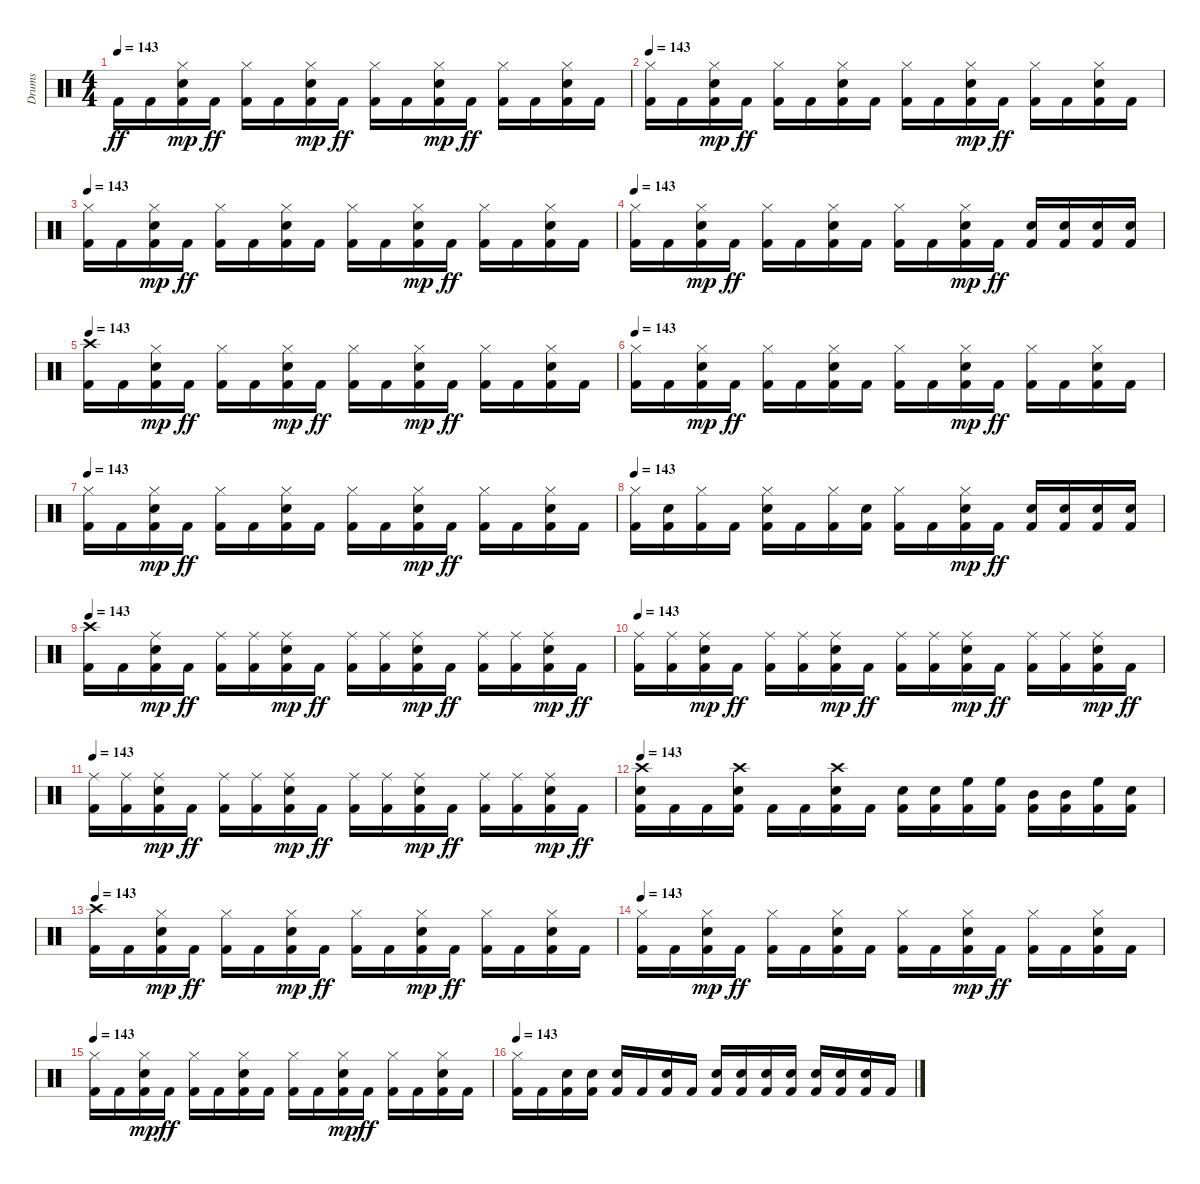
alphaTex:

\track ("Drums" "Drums") {instrument percussion}
\staff {score}
\articulation defaults
\ts (4 4)
\tempo 143
\clef neutral
\ks c "Kick (hit) 2".16{dy ff} "Kick (hit) 2".16
("Kick (hit) 2" "Snare (hit) 2" "Hi-Hat (closed)").16{dy mp} "Kick (hit) 2".16{dy ff} ("Kick (hit) 2" "Hi-Hat (closed)").16 "Kick (hit) 2".16 ("Kick (hit) 2" "Snare (hit) 2" "Hi-Hat (closed)").16{dy mp} "Kick (hit) 2".16{dy ff} ("Hi-Hat (closed)" "Kick (hit) 2").16 "Kick (hit) 2".16 ("Kick (hit) 2" "Snare (hit) 2" "Hi-Hat (closed)").16{dy mp} "Kick (hit) 2".16{dy ff} ("Kick (hit) 2" "Hi-Hat (closed)").16 "Kick (hit) 2".16 ("Hi-Hat (closed)" "Snare (hit) 2" "Kick (hit) 2").16 "Kick (hit) 2".16 |
\tempo 143
("Hi-Hat (closed)" "Kick (hit) 2").16 "Kick (hit) 2".16 ("Kick (hit) 2" "Snare (hit) 2" "Hi-Hat (closed)").16{dy mp} "Kick (hit) 2".16{dy ff} ("Kick (hit) 2" "Hi-Hat (closed)").16 "Kick (hit) 2".16 ("Hi-Hat (closed)" "Snare (hit) 2" "Kick (hit) 2").16 "Kick (hit) 2".16 ("Hi-Hat (closed)" "Kick (hit) 2").16 "Kick (hit) 2".16 ("Kick (hit) 2" "Snare (hit) 2" "Hi-Hat (closed)").16{dy mp} "Kick (hit) 2".16{dy ff} ("Kick (hit) 2" "Hi-Hat (closed)").16 "Kick (hit) 2".16 ("Hi-Hat (closed)" "Snare (hit) 2" "Kick (hit) 2").16 "Kick (hit) 2".16 |
\tempo 143
("Hi-Hat (closed)" "Kick (hit) 2").16 "Kick (hit) 2".16 ("Kick (hit) 2" "Snare (hit) 2" "Hi-Hat (closed)").16{dy mp} "Kick (hit) 2".16{dy ff} ("Kick (hit) 2" "Hi-Hat (closed)").16 "Kick (hit) 2".16 ("Hi-Hat (closed)" "Snare (hit) 2" "Kick (hit) 2").16 "Kick (hit) 2".16 ("Hi-Hat (closed)" "Kick (hit) 2").16 "Kick (hit) 2".16 ("Kick (hit) 2" "Snare (hit) 2" "Hi-Hat (closed)").16{dy mp} "Kick (hit) 2".16{dy ff} ("Kick (hit) 2" "Hi-Hat (closed)").16 "Kick (hit) 2".16 ("Hi-Hat (closed)" "Snare (hit) 2" "Kick (hit) 2").16 "Kick (hit) 2".16 |
\tempo 143
("Hi-Hat (closed)" "Kick (hit) 2").16 "Kick (hit) 2".16 ("Kick (hit) 2" "Snare (hit) 2" "Hi-Hat (closed)").16{dy mp} "Kick (hit) 2".16{dy ff} ("Kick (hit) 2" "Hi-Hat (closed)").16 "Kick (hit) 2".16 ("Hi-Hat (closed)" "Snare (hit) 2" "Kick (hit) 2").16 "Kick (hit) 2".16 ("Hi-Hat (closed)" "Kick (hit) 2").16 "Kick (hit) 2".16 ("Kick (hit) 2" "Snare (hit) 2" "Hi-Hat (closed)").16{dy mp} "Kick (hit) 2".16{dy ff} ("Snare (hit) 2" "Kick (hit) 2").16 ("Snare (hit) 2" "Kick (hit) 2").16 ("Snare (hit) 2" "Kick (hit) 2").16 ("Snare (hit) 2" "Kick (hit) 2").16 |
\tempo 143
("Crash high (hit)" "Kick (hit) 2").16 "Kick (hit) 2".16 ("Kick (hit) 2" "Snare (hit) 2" "Hi-Hat (closed)").16{dy mp} "Kick (hit) 2".16{dy ff} ("Kick (hit) 2" "Hi-Hat (closed)").16 "Kick (hit) 2".16 ("Kick (hit) 2" "Snare (hit) 2" "Hi-Hat (closed)").16{dy mp} "Kick (hit) 2".16{dy ff} ("Hi-Hat (closed)" "Kick (hit) 2").16 "Kick (hit) 2".16 ("Kick (hit) 2" "Snare (hit) 2" "Hi-Hat (closed)").16{dy mp} "Kick (hit) 2".16{dy ff} ("Kick (hit) 2" "Hi-Hat (closed)").16 "Kick (hit) 2".16 ("Hi-Hat (closed)" "Snare (hit) 2" "Kick (hit) 2").16 "Kick (hit) 2".16 |
\tempo 143
("Hi-Hat (closed)" "Kick (hit) 2").16 "Kick (hit) 2".16 ("Kick (hit) 2" "Snare (hit) 2" "Hi-Hat (closed)").16{dy mp} "Kick (hit) 2".16{dy ff} ("Kick (hit) 2" "Hi-Hat (closed)").16 "Kick (hit) 2".16 ("Hi-Hat (closed)" "Snare (hit) 2" "Kick (hit) 2").16 "Kick (hit) 2".16 ("Hi-Hat (closed)" "Kick (hit) 2").16 "Kick (hit) 2".16 ("Kick (hit) 2" "Snare (hit) 2" "Hi-Hat (closed)").16{dy mp} "Kick (hit) 2".16{dy ff} ("Kick (hit) 2" "Hi-Hat (closed)").16 "Kick (hit) 2".16 ("Hi-Hat (closed)" "Snare (hit) 2" "Kick (hit) 2").16 "Kick (hit) 2".16 |
\tempo 143
("Hi-Hat (closed)" "Kick (hit) 2").16 "Kick (hit) 2".16 ("Kick (hit) 2" "Snare (hit) 2" "Hi-Hat (closed)").16{dy mp} "Kick (hit) 2".16{dy ff} ("Kick (hit) 2" "Hi-Hat (closed)").16 "Kick (hit) 2".16 ("Hi-Hat (closed)" "Snare (hit) 2" "Kick (hit) 2").16 "Kick (hit) 2".16 ("Hi-Hat (closed)" "Kick (hit) 2").16 "Kick (hit) 2".16 ("Kick (hit) 2" "Snare (hit) 2" "Hi-Hat (closed)").16{dy mp} "Kick (hit) 2".16{dy ff} ("Kick (hit) 2" "Hi-Hat (closed)").16 "Kick (hit) 2".16 ("Hi-Hat (closed)" "Snare (hit) 2" "Kick (hit) 2").16 "Kick (hit) 2".16 |
\tempo 143
("Hi-Hat (closed)" "Kick (hit) 2").16 ("Snare (hit) 2" "Kick (hit) 2").16 ("Hi-Hat (closed)" "Kick (hit) 2").16 "Kick (hit) 2".16 ("Kick (hit) 2" "Hi-Hat (closed)" "Snare (hit) 2").16 "Kick (hit) 2".16 ("Hi-Hat (closed)" "Kick (hit) 2").16 ("Snare (hit) 2" "Kick (hit) 2").16 ("Hi-Hat (closed)" "Kick (hit) 2").16 "Kick (hit) 2".16 ("Kick (hit) 2" "Snare (hit) 2" "Hi-Hat (closed)").16{dy mp} "Kick (hit) 2".16{dy ff} ("Snare (hit) 2" "Kick (hit) 2").16 ("Snare (hit) 2" "Kick (hit) 2").16 ("Snare (hit) 2" "Kick (hit) 2").16 ("Snare (hit) 2" "Kick (hit) 2").16 |
\tempo 143
("Crash high (hit)" "Kick (hit) 2").16 "Kick (hit) 2".16 ("Kick (hit) 2" "Snare (hit) 2" "Ride (middle)").16{dy mp} "Kick (hit) 2".16{dy ff} ("Ride (middle)" "Kick (hit) 2").16 ("Ride (middle)" "Kick (hit) 2").16 ("Kick (hit) 2" "Snare (hit) 2" "Ride (middle)").16{dy mp} "Kick (hit) 2".16{dy ff} ("Ride (middle)" "Kick (hit) 2").16 ("Ride (middle)" "Kick (hit) 2").16 ("Kick (hit) 2" "Snare (hit) 2" "Ride (middle)").16{dy mp} "Kick (hit) 2".16{dy ff} ("Ride (middle)" "Kick (hit) 2").16 ("Ride (middle)" "Kick (hit) 2").16 ("Kick (hit) 2" "Snare (hit) 2" "Ride (middle)").16{dy mp} "Kick (hit) 2".16{dy ff} |
\tempo 143
("Ride (middle)" "Kick (hit) 2").16 ("Ride (middle)" "Kick (hit) 2").16 ("Kick (hit) 2" "Snare (hit) 2" "Ride (middle)").16{dy mp} "Kick (hit) 2".16{dy ff} ("Ride (middle)" "Kick (hit) 2").16 ("Ride (middle)" "Kick (hit) 2").16 ("Kick (hit) 2" "Snare (hit) 2" "Ride (middle)").16{dy mp} "Kick (hit) 2".16{dy ff} ("Ride (middle)" "Kick (hit) 2").16 ("Ride (middle)" "Kick (hit) 2").16 ("Kick (hit) 2" "Snare (hit) 2" "Ride (middle)").16{dy mp} "Kick (hit) 2".16{dy ff} ("Ride (middle)" "Kick (hit) 2").16 ("Ride (middle)" "Kick (hit) 2").16 ("Kick (hit) 2" "Snare (hit) 2" "Ride (middle)").16{dy mp} "Kick (hit) 2".16{dy ff} |
\tempo 143
("Ride (middle)" "Kick (hit) 2").16 ("Ride (middle)" "Kick (hit) 2").16 ("Kick (hit) 2" "Snare (hit) 2" "Ride (middle)").16{dy mp} "Kick (hit) 2".16{dy ff} ("Ride (middle)" "Kick (hit) 2").16 ("Ride (middle)" "Kick (hit) 2").16 ("Kick (hit) 2" "Snare (hit) 2" "Ride (middle)").16{dy mp} "Kick (hit) 2".16{dy ff} ("Ride (middle)" "Kick (hit) 2").16 ("Ride (middle)" "Kick (hit) 2").16 ("Kick (hit) 2" "Snare (hit) 2" "Ride (middle)").16{dy mp} "Kick (hit) 2".16{dy ff} ("Ride (middle)" "Kick (hit) 2").16 ("Ride (middle)" "Kick (hit) 2").16 ("Kick (hit) 2" "Snare (hit) 2" "Ride (middle)").16{dy mp} "Kick (hit) 2".16{dy ff} |
\tempo 143
("Kick (hit) 2" "Snare (hit) 2" "Crash high (hit)").16 "Kick (hit) 2".16 "Kick (hit) 2".16 ("Crash high (hit)" "Snare (hit) 2" "Kick (hit) 2").16 "Kick (hit) 2".16 "Kick (hit) 2".16 ("Kick (hit) 2" "Snare (hit) 2" "Crash high (hit)").16 "Kick (hit) 2".16 ("Snare (hit) 2" "Kick (hit) 2").16 ("Snare (hit) 2" "Kick (hit) 2").16 ("High Floor Tom (hit)" "Kick (hit) 2").16 ("High Floor Tom (hit)" "Kick (hit) 2").16 ("Mid Tom (hit)" "Kick (hit) 2").16 ("Mid Tom (hit)" "Kick (hit) 2").16 ("High Floor Tom (hit)" "Kick (hit) 2").16 ("Snare (hit) 2" "Kick (hit) 2").16 |
\tempo 143
("Crash high (hit)" "Kick (hit) 2").16 "Kick (hit) 2".16 ("Kick (hit) 2" "Snare (hit) 2" "Hi-Hat (closed)").16{dy mp} "Kick (hit) 2".16{dy ff} ("Kick (hit) 2" "Hi-Hat (closed)").16 "Kick (hit) 2".16 ("Kick (hit) 2" "Snare (hit) 2" "Hi-Hat (closed)").16{dy mp} "Kick (hit) 2".16{dy ff} ("Hi-Hat (closed)" "Kick (hit) 2").16 "Kick (hit) 2".16 ("Kick (hit) 2" "Snare (hit) 2" "Hi-Hat (closed)").16{dy mp} "Kick (hit) 2".16{dy ff} ("Kick (hit) 2" "Hi-Hat (closed)").16 "Kick (hit) 2".16 ("Hi-Hat (closed)" "Snare (hit) 2" "Kick (hit) 2").16 "Kick (hit) 2".16 |
\tempo 143
("Hi-Hat (closed)" "Kick (hit) 2").16 "Kick (hit) 2".16 ("Kick (hit) 2" "Snare (hit) 2" "Hi-Hat (closed)").16{dy mp} "Kick (hit) 2".16{dy ff} ("Kick (hit) 2" "Hi-Hat (closed)").16 "Kick (hit) 2".16 ("Hi-Hat (closed)" "Snare (hit) 2" "Kick (hit) 2").16 "Kick (hit) 2".16 ("Hi-Hat (closed)" "Kick (hit) 2").16 "Kick (hit) 2".16 ("Kick (hit) 2" "Snare (hit) 2" "Hi-Hat (closed)").16{dy mp} "Kick (hit) 2".16{dy ff} ("Kick (hit) 2" "Hi-Hat (closed)").16 "Kick (hit) 2".16 ("Hi-Hat (closed)" "Snare (hit) 2" "Kick (hit) 2").16 "Kick (hit) 2".16 |
\tempo 143
("Hi-Hat (closed)" "Kick (hit) 2").16 "Kick (hit) 2".16 ("Kick (hit) 2" "Snare (hit) 2" "Hi-Hat (closed)").16{dy mp} "Kick (hit) 2".16{dy ff} ("Kick (hit) 2" "Hi-Hat (closed)").16 "Kick (hit) 2".16 ("Hi-Hat (closed)" "Snare (hit) 2" "Kick (hit) 2").16 "Kick (hit) 2".16 ("Hi-Hat (closed)" "Kick (hit) 2").16 "Kick (hit) 2".16 ("Kick (hit) 2" "Snare (hit) 2" "Hi-Hat (closed)").16{dy mp} "Kick (hit) 2".16{dy ff} ("Kick (hit) 2" "Hi-Hat (closed)").16 "Kick (hit) 2".16 ("Hi-Hat (closed)" "Snare (hit) 2" "Kick (hit) 2").16 "Kick (hit) 2".16 |
\tempo 143
("Hi-Hat (closed)" "Kick (hit) 2").16 "Kick (hit) 2".16 ("Snare (hit) 2" "Kick (hit) 2").16 ("Snare (hit) 2" "Kick (hit) 2").16 ("Snare (hit) 2" "Kick (hit) 2").16 "Kick (hit) 2".16 ("Snare (hit) 2" "Kick (hit) 2").16 "Kick (hit) 2".16 ("Kick (hit) 2" "Snare (hit) 2").16 ("Kick (hit) 2" "Snare (hit) 2").16 ("Kick (hit) 2" "Snare (hit) 2").16 ("Kick (hit) 2" "Snare (hit) 2").16 ("Kick (hit) 2" "Snare (hit) 2").16 ("Kick (hit) 2" "Snare (hit) 2").16 ("Snare (hit) 2" "Kick (hit) 2").16 "Kick (hit) 2".16
